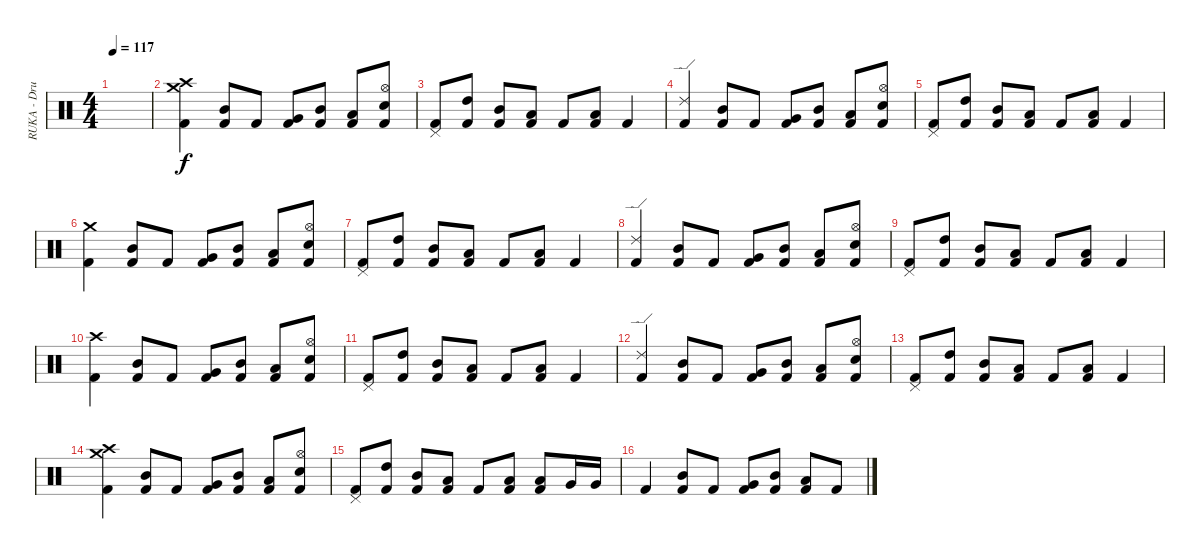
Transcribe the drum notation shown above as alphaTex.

\track ("RUKA - Drums" "RUKA - Dru") {instrument percussion}
\staff {score}
\articulation defaults
\ts (4 4)
\tempo 117
\clef neutral
\ks c
|
("Kick (hit) 2" "Crash medium (hit)" "Crash high (hit)").4 ("Mid Tom (hit)" "Kick (hit) 2").8 "Kick (hit) 2".8 ("Very Low Tom (hit)" "Kick (hit) 2").8 ("Mid Tom (hit)" "Kick (hit) 2").8 ("Low Floor Tom (hit)" "Kick (hit) 2").8 ("Hi-Hat (open)" "Electric Snare (hit)" "Kick (hit) 2").8 |
("Pedal Hi-Hat (hit)" "Kick (hit) 2").8 ("High Tom (hit)" "Kick (hit) 2").8 ("Mid Tom (hit)" "Kick (hit) 2").8 ("Low Floor Tom (hit)" "Kick (hit) 2").8 "Kick (hit) 2".8 ("Low Floor Tom (hit)" "Kick (hit) 2").8 "Kick (hit) 2".4 |
("Kick (hit) 2" "Ride (edge) 2").4 ("Mid Tom (hit)" "Kick (hit) 2").8 "Kick (hit) 2".8 ("Very Low Tom (hit)" "Kick (hit) 2").8 ("Mid Tom (hit)" "Kick (hit) 2").8 ("Low Floor Tom (hit)" "Kick (hit) 2").8 ("Hi-Hat (open)" "Electric Snare (hit)" "Kick (hit) 2").8 |
("Pedal Hi-Hat (hit)" "Kick (hit) 2").8 ("High Tom (hit)" "Kick (hit) 2").8 ("Mid Tom (hit)" "Kick (hit) 2").8 ("Low Floor Tom (hit)" "Kick (hit) 2").8 "Kick (hit) 2".8 ("Low Floor Tom (hit)" "Kick (hit) 2").8 "Kick (hit) 2".4 |
("Kick (hit) 2" "Crash medium (hit)").4 ("Mid Tom (hit)" "Kick (hit) 2").8 "Kick (hit) 2".8 ("Very Low Tom (hit)" "Kick (hit) 2").8 ("Mid Tom (hit)" "Kick (hit) 2").8 ("Low Floor Tom (hit)" "Kick (hit) 2").8 ("Hi-Hat (open)" "Electric Snare (hit)" "Kick (hit) 2").8 |
("Pedal Hi-Hat (hit)" "Kick (hit) 2").8 ("High Tom (hit)" "Kick (hit) 2").8 ("Mid Tom (hit)" "Kick (hit) 2").8 ("Low Floor Tom (hit)" "Kick (hit) 2").8 "Kick (hit) 2".8 ("Low Floor Tom (hit)" "Kick (hit) 2").8 "Kick (hit) 2".4 |
("Kick (hit) 2" "Ride (edge) 2").4 ("Mid Tom (hit)" "Kick (hit) 2").8 "Kick (hit) 2".8 ("Very Low Tom (hit)" "Kick (hit) 2").8 ("Mid Tom (hit)" "Kick (hit) 2").8 ("Low Floor Tom (hit)" "Kick (hit) 2").8 ("Hi-Hat (open)" "Electric Snare (hit)" "Kick (hit) 2").8 |
("Pedal Hi-Hat (hit)" "Kick (hit) 2").8 ("High Tom (hit)" "Kick (hit) 2").8 ("Mid Tom (hit)" "Kick (hit) 2").8 ("Low Floor Tom (hit)" "Kick (hit) 2").8 "Kick (hit) 2".8 ("Low Floor Tom (hit)" "Kick (hit) 2").8 "Kick (hit) 2".4 |
("Kick (hit) 2" "Crash high (hit)").4 ("Mid Tom (hit)" "Kick (hit) 2").8 "Kick (hit) 2".8 ("Very Low Tom (hit)" "Kick (hit) 2").8 ("Mid Tom (hit)" "Kick (hit) 2").8 ("Low Floor Tom (hit)" "Kick (hit) 2").8 ("Hi-Hat (open)" "Electric Snare (hit)" "Kick (hit) 2").8 |
("Pedal Hi-Hat (hit)" "Kick (hit) 2").8 ("High Tom (hit)" "Kick (hit) 2").8 ("Mid Tom (hit)" "Kick (hit) 2").8 ("Low Floor Tom (hit)" "Kick (hit) 2").8 "Kick (hit) 2".8 ("Low Floor Tom (hit)" "Kick (hit) 2").8 "Kick (hit) 2".4 |
("Kick (hit) 2" "Ride (edge) 2").4 ("Mid Tom (hit)" "Kick (hit) 2").8 "Kick (hit) 2".8 ("Very Low Tom (hit)" "Kick (hit) 2").8 ("Mid Tom (hit)" "Kick (hit) 2").8 ("Low Floor Tom (hit)" "Kick (hit) 2").8 ("Hi-Hat (open)" "Electric Snare (hit)" "Kick (hit) 2").8 |
("Pedal Hi-Hat (hit)" "Kick (hit) 2").8 ("High Tom (hit)" "Kick (hit) 2").8 ("Mid Tom (hit)" "Kick (hit) 2").8 ("Low Floor Tom (hit)" "Kick (hit) 2").8 "Kick (hit) 2".8 ("Low Floor Tom (hit)" "Kick (hit) 2").8 "Kick (hit) 2".4 |
("Kick (hit) 2" "Crash medium (hit)" "Crash high (hit)").4 ("Mid Tom (hit)" "Kick (hit) 2").8 "Kick (hit) 2".8 ("Very Low Tom (hit)" "Kick (hit) 2").8 ("Mid Tom (hit)" "Kick (hit) 2").8 ("Low Floor Tom (hit)" "Kick (hit) 2").8 ("Hi-Hat (open)" "Electric Snare (hit)" "Kick (hit) 2").8 |
("Pedal Hi-Hat (hit)" "Kick (hit) 2").8 ("High Tom (hit)" "Kick (hit) 2").8 ("Mid Tom (hit)" "Kick (hit) 2").8 ("Low Floor Tom (hit)" "Kick (hit) 2").8 "Kick (hit) 2".8 ("Low Floor Tom (hit)" "Kick (hit) 2").8 ("Low Floor Tom (hit)" "Kick (hit) 2").8 "Very Low Tom (hit)".16 "Very Low Tom (hit)".16 |
"Kick (hit) 2".4 ("Mid Tom (hit)" "Kick (hit) 2").8 "Kick (hit) 2".8 ("Very Low Tom (hit)" "Kick (hit) 2").8 ("Mid Tom (hit)" "Kick (hit) 2").8 ("Low Floor Tom (hit)" "Kick (hit) 2").8 "Kick (hit) 2".8
